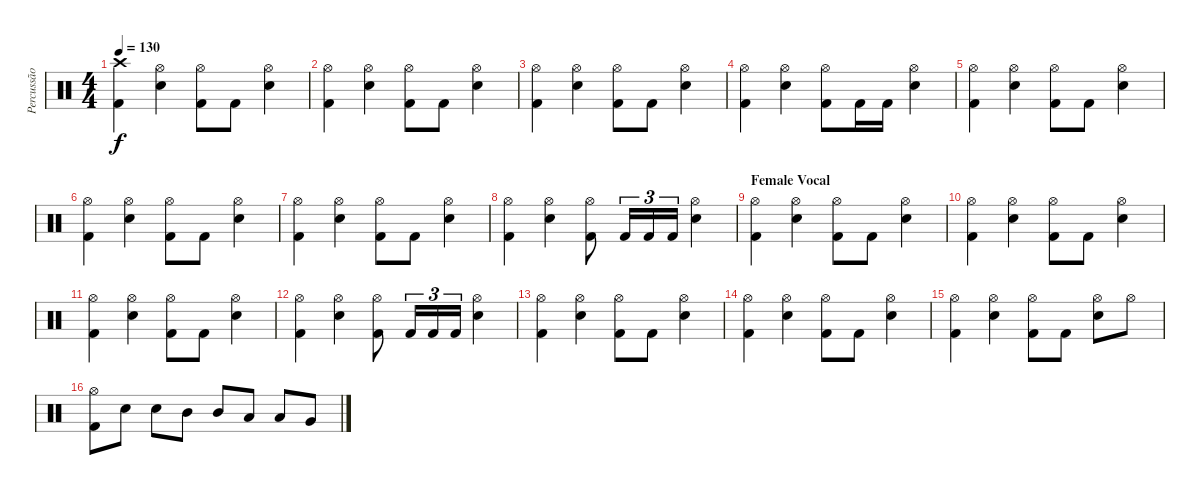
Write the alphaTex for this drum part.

\track ("Percussão" "Percussão") {instrument percussion}
\staff {score}
\articulation defaults
\ts (4 4)
\tempo 130
\clef neutral
\ks c
("Crash high (hit)" "Kick (hit) 2").4{dy f} ("Hi-Hat (open)" "Electric Snare (hit)").4 ("Hi-Hat (open)" "Kick (hit) 2").8 "Kick (hit) 2".8 ("Hi-Hat (open)" "Electric Snare (hit)").4 |
("Hi-Hat (open)" "Kick (hit) 2").4 ("Hi-Hat (open)" "Electric Snare (hit)").4 ("Hi-Hat (open)" "Kick (hit) 2").8 "Kick (hit) 2".8 ("Hi-Hat (open)" "Electric Snare (hit)").4 |
("Hi-Hat (open)" "Kick (hit) 2").4 ("Hi-Hat (open)" "Electric Snare (hit)").4 ("Hi-Hat (open)" "Kick (hit) 2").8 "Kick (hit) 2".8 ("Hi-Hat (open)" "Electric Snare (hit)").4 |
("Hi-Hat (open)" "Kick (hit) 2").4 ("Hi-Hat (open)" "Electric Snare (hit)").4 ("Hi-Hat (open)" "Kick (hit) 2").8 "Kick (hit) 2".16 "Kick (hit) 2".16 ("Hi-Hat (open)" "Electric Snare (hit)").4 |
("Hi-Hat (open)" "Kick (hit) 2").4 ("Hi-Hat (open)" "Electric Snare (hit)").4 ("Hi-Hat (open)" "Kick (hit) 2").8 "Kick (hit) 2".8 ("Hi-Hat (open)" "Electric Snare (hit)").4 |
("Hi-Hat (open)" "Kick (hit) 2").4 ("Hi-Hat (open)" "Electric Snare (hit)").4 ("Hi-Hat (open)" "Kick (hit) 2").8 "Kick (hit) 2".8 ("Hi-Hat (open)" "Electric Snare (hit)").4 |
("Hi-Hat (open)" "Kick (hit) 2").4 ("Hi-Hat (open)" "Electric Snare (hit)").4 ("Hi-Hat (open)" "Kick (hit) 2").8 "Kick (hit) 2".8 ("Hi-Hat (open)" "Electric Snare (hit)").4 |
("Hi-Hat (open)" "Kick (hit) 2").4 ("Hi-Hat (open)" "Electric Snare (hit)").4 ("Hi-Hat (open)" "Kick (hit) 2").8 "Kick (hit) 2".16{tu (3 2)} "Kick (hit) 2".16{tu (3 2)} "Kick (hit) 2".16{tu (3 2)} ("Hi-Hat (open)" "Electric Snare (hit)").4 |
\section ("" "Female Vocal")
("Hi-Hat (open)" "Kick (hit) 2").4 ("Hi-Hat (open)" "Electric Snare (hit)").4 ("Hi-Hat (open)" "Kick (hit) 2").8 "Kick (hit) 2".8 ("Hi-Hat (open)" "Electric Snare (hit)").4 |
("Hi-Hat (open)" "Kick (hit) 2").4 ("Hi-Hat (open)" "Electric Snare (hit)").4 ("Hi-Hat (open)" "Kick (hit) 2").8 "Kick (hit) 2".8 ("Hi-Hat (open)" "Electric Snare (hit)").4 |
("Hi-Hat (open)" "Kick (hit) 2").4 ("Hi-Hat (open)" "Electric Snare (hit)").4 ("Hi-Hat (open)" "Kick (hit) 2").8 "Kick (hit) 2".8 ("Hi-Hat (open)" "Electric Snare (hit)").4 |
("Hi-Hat (open)" "Kick (hit) 2").4 ("Hi-Hat (open)" "Electric Snare (hit)").4 ("Hi-Hat (open)" "Kick (hit) 2").8 "Kick (hit) 2".16{tu (3 2)} "Kick (hit) 2".16{tu (3 2)} "Kick (hit) 2".16{tu (3 2)} ("Hi-Hat (open)" "Electric Snare (hit)").4 |
("Hi-Hat (open)" "Kick (hit) 2").4 ("Hi-Hat (open)" "Electric Snare (hit)").4 ("Hi-Hat (open)" "Kick (hit) 2").8 "Kick (hit) 2".8 ("Hi-Hat (open)" "Electric Snare (hit)").4 |
("Hi-Hat (open)" "Kick (hit) 2").4 ("Hi-Hat (open)" "Electric Snare (hit)").4 ("Hi-Hat (open)" "Kick (hit) 2").8 "Kick (hit) 2".8 ("Hi-Hat (open)" "Electric Snare (hit)").4 |
("Hi-Hat (open)" "Kick (hit) 2").4 ("Hi-Hat (open)" "Electric Snare (hit)").4 ("Hi-Hat (open)" "Kick (hit) 2").8 "Kick (hit) 2".8 ("Hi-Hat (open)" "Electric Snare (hit)").8 "Hi-Hat (open)".8 |
("Hi-Hat (open)" "Kick (hit) 2").8 "Electric Snare (hit)".8 "Electric Snare (hit)".8 "Mid Tom (hit)".8 "Mid Tom (hit)".8 "Low Tom (hit)".8 "Low Tom (hit)".8 "Very Low Tom (hit)".8
